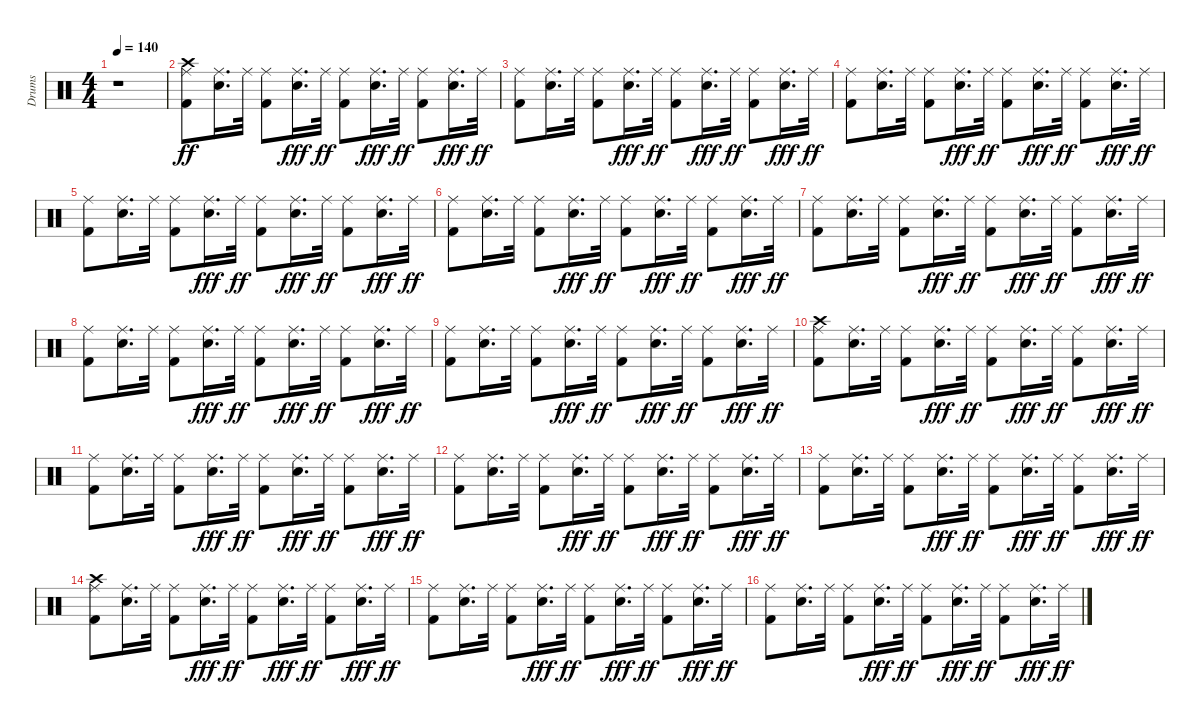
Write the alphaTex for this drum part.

\track ("Drums" "Drums") {instrument percussion}
\staff {score}
\articulation defaults
\ts (4 4)
\tempo 140
\clef neutral
\ks c
r.1{dy ff} |
("Kick (hit) 2" "Crash high (hit)" "Ride (middle)").8 ("Ride (middle)" "Snare (hit) 2").16{d} "Ride (middle)".32 ("Kick (hit) 2" "Ride (middle)").8 ("Ride (middle)" "Snare (hit) 2").16{d dy fff} "Ride (middle)".32{dy ff} ("Kick (hit) 2" "Ride (middle)").8 ("Ride (middle)" "Snare (hit) 2").16{d dy fff} "Ride (middle)".32{dy ff} ("Kick (hit) 2" "Ride (middle)").8 ("Ride (middle)" "Snare (hit) 2").16{d dy fff} "Ride (middle)".32{dy ff} |
("Kick (hit) 2" "Ride (middle)").8 ("Ride (middle)" "Snare (hit) 2").16{d} "Ride (middle)".32 ("Kick (hit) 2" "Ride (middle)").8 ("Ride (middle)" "Snare (hit) 2").16{d dy fff} "Ride (middle)".32{dy ff} ("Kick (hit) 2" "Ride (middle)").8 ("Ride (middle)" "Snare (hit) 2").16{d dy fff} "Ride (middle)".32{dy ff} ("Kick (hit) 2" "Ride (middle)").8 ("Ride (middle)" "Snare (hit) 2").16{d dy fff} "Ride (middle)".32{dy ff} |
("Kick (hit) 2" "Ride (middle)").8 ("Ride (middle)" "Snare (hit) 2").16{d} "Ride (middle)".32 ("Kick (hit) 2" "Ride (middle)").8 ("Ride (middle)" "Snare (hit) 2").16{d dy fff} "Ride (middle)".32{dy ff} ("Kick (hit) 2" "Ride (middle)").8 ("Ride (middle)" "Snare (hit) 2").16{d dy fff} "Ride (middle)".32{dy ff} ("Kick (hit) 2" "Ride (middle)").8 ("Ride (middle)" "Snare (hit) 2").16{d dy fff} "Ride (middle)".32{dy ff} |
("Kick (hit) 2" "Ride (middle)").8 ("Ride (middle)" "Snare (hit) 2").16{d} "Ride (middle)".32 ("Kick (hit) 2" "Ride (middle)").8 ("Ride (middle)" "Snare (hit) 2").16{d dy fff} "Ride (middle)".32{dy ff} ("Kick (hit) 2" "Ride (middle)").8 ("Ride (middle)" "Snare (hit) 2").16{d dy fff} "Ride (middle)".32{dy ff} ("Kick (hit) 2" "Ride (middle)").8 ("Ride (middle)" "Snare (hit) 2").16{d dy fff} "Ride (middle)".32{dy ff} |
("Kick (hit) 2" "Ride (middle)").8 ("Ride (middle)" "Snare (hit) 2").16{d} "Ride (middle)".32 ("Kick (hit) 2" "Ride (middle)").8 ("Ride (middle)" "Snare (hit) 2").16{d dy fff} "Ride (middle)".32{dy ff} ("Kick (hit) 2" "Ride (middle)").8 ("Ride (middle)" "Snare (hit) 2").16{d dy fff} "Ride (middle)".32{dy ff} ("Kick (hit) 2" "Ride (middle)").8 ("Ride (middle)" "Snare (hit) 2").16{d dy fff} "Ride (middle)".32{dy ff} |
("Kick (hit) 2" "Ride (middle)").8 ("Ride (middle)" "Snare (hit) 2").16{d} "Ride (middle)".32 ("Kick (hit) 2" "Ride (middle)").8 ("Ride (middle)" "Snare (hit) 2").16{d dy fff} "Ride (middle)".32{dy ff} ("Kick (hit) 2" "Ride (middle)").8 ("Ride (middle)" "Snare (hit) 2").16{d dy fff} "Ride (middle)".32{dy ff} ("Kick (hit) 2" "Ride (middle)").8 ("Ride (middle)" "Snare (hit) 2").16{d dy fff} "Ride (middle)".32{dy ff} |
("Kick (hit) 2" "Ride (middle)").8 ("Ride (middle)" "Snare (hit) 2").16{d} "Ride (middle)".32 ("Kick (hit) 2" "Ride (middle)").8 ("Ride (middle)" "Snare (hit) 2").16{d dy fff} "Ride (middle)".32{dy ff} ("Kick (hit) 2" "Ride (middle)").8 ("Ride (middle)" "Snare (hit) 2").16{d dy fff} "Ride (middle)".32{dy ff} ("Kick (hit) 2" "Ride (middle)").8 ("Ride (middle)" "Snare (hit) 2").16{d dy fff} "Ride (middle)".32{dy ff} |
("Kick (hit) 2" "Ride (middle)").8 ("Ride (middle)" "Snare (hit) 2").16{d} "Ride (middle)".32 ("Kick (hit) 2" "Ride (middle)").8 ("Ride (middle)" "Snare (hit) 2").16{d dy fff} "Ride (middle)".32{dy ff} ("Kick (hit) 2" "Ride (middle)").8 ("Ride (middle)" "Snare (hit) 2").16{d dy fff} "Ride (middle)".32{dy ff} ("Kick (hit) 2" "Ride (middle)").8 ("Ride (middle)" "Snare (hit) 2").16{d dy fff} "Ride (middle)".32{dy ff} |
("Kick (hit) 2" "Crash high (hit)" "Ride (middle)").8 ("Ride (middle)" "Snare (hit) 2").16{d} "Ride (middle)".32 ("Kick (hit) 2" "Ride (middle)").8 ("Ride (middle)" "Snare (hit) 2").16{d dy fff} "Ride (middle)".32{dy ff} ("Kick (hit) 2" "Ride (middle)").8 ("Ride (middle)" "Snare (hit) 2").16{d dy fff} "Ride (middle)".32{dy ff} ("Kick (hit) 2" "Ride (middle)").8 ("Ride (middle)" "Snare (hit) 2").16{d dy fff} "Ride (middle)".32{dy ff} |
("Kick (hit) 2" "Ride (middle)").8 ("Ride (middle)" "Snare (hit) 2").16{d} "Ride (middle)".32 ("Kick (hit) 2" "Ride (middle)").8 ("Ride (middle)" "Snare (hit) 2").16{d dy fff} "Ride (middle)".32{dy ff} ("Kick (hit) 2" "Ride (middle)").8 ("Ride (middle)" "Snare (hit) 2").16{d dy fff} "Ride (middle)".32{dy ff} ("Kick (hit) 2" "Ride (middle)").8 ("Ride (middle)" "Snare (hit) 2").16{d dy fff} "Ride (middle)".32{dy ff} |
("Kick (hit) 2" "Ride (middle)").8 ("Ride (middle)" "Snare (hit) 2").16{d} "Ride (middle)".32 ("Kick (hit) 2" "Ride (middle)").8 ("Ride (middle)" "Snare (hit) 2").16{d dy fff} "Ride (middle)".32{dy ff} ("Kick (hit) 2" "Ride (middle)").8 ("Ride (middle)" "Snare (hit) 2").16{d dy fff} "Ride (middle)".32{dy ff} ("Kick (hit) 2" "Ride (middle)").8 ("Ride (middle)" "Snare (hit) 2").16{d dy fff} "Ride (middle)".32{dy ff} |
("Kick (hit) 2" "Ride (middle)").8 ("Ride (middle)" "Snare (hit) 2").16{d} "Ride (middle)".32 ("Kick (hit) 2" "Ride (middle)").8 ("Ride (middle)" "Snare (hit) 2").16{d dy fff} "Ride (middle)".32{dy ff} ("Kick (hit) 2" "Ride (middle)").8 ("Ride (middle)" "Snare (hit) 2").16{d dy fff} "Ride (middle)".32{dy ff} ("Kick (hit) 2" "Ride (middle)").8 ("Ride (middle)" "Snare (hit) 2").16{d dy fff} "Ride (middle)".32{dy ff} |
("Kick (hit) 2" "Crash high (hit)" "Ride (middle)").8 ("Ride (middle)" "Snare (hit) 2").16{d} "Ride (middle)".32 ("Kick (hit) 2" "Ride (middle)").8 ("Ride (middle)" "Snare (hit) 2").16{d dy fff} "Ride (middle)".32{dy ff} ("Kick (hit) 2" "Ride (middle)").8 ("Ride (middle)" "Snare (hit) 2").16{d dy fff} "Ride (middle)".32{dy ff} ("Kick (hit) 2" "Ride (middle)").8 ("Ride (middle)" "Snare (hit) 2").16{d dy fff} "Ride (middle)".32{dy ff} |
("Kick (hit) 2" "Ride (middle)").8 ("Ride (middle)" "Snare (hit) 2").16{d} "Ride (middle)".32 ("Kick (hit) 2" "Ride (middle)").8 ("Ride (middle)" "Snare (hit) 2").16{d dy fff} "Ride (middle)".32{dy ff} ("Kick (hit) 2" "Ride (middle)").8 ("Ride (middle)" "Snare (hit) 2").16{d dy fff} "Ride (middle)".32{dy ff} ("Kick (hit) 2" "Ride (middle)").8 ("Ride (middle)" "Snare (hit) 2").16{d dy fff} "Ride (middle)".32{dy ff} |
("Kick (hit) 2" "Ride (middle)").8 ("Ride (middle)" "Snare (hit) 2").16{d} "Ride (middle)".32 ("Kick (hit) 2" "Ride (middle)").8 ("Ride (middle)" "Snare (hit) 2").16{d dy fff} "Ride (middle)".32{dy ff} ("Kick (hit) 2" "Ride (middle)").8 ("Ride (middle)" "Snare (hit) 2").16{d dy fff} "Ride (middle)".32{dy ff} ("Kick (hit) 2" "Ride (middle)").8 ("Ride (middle)" "Snare (hit) 2").16{d dy fff} "Ride (middle)".32{dy ff}
